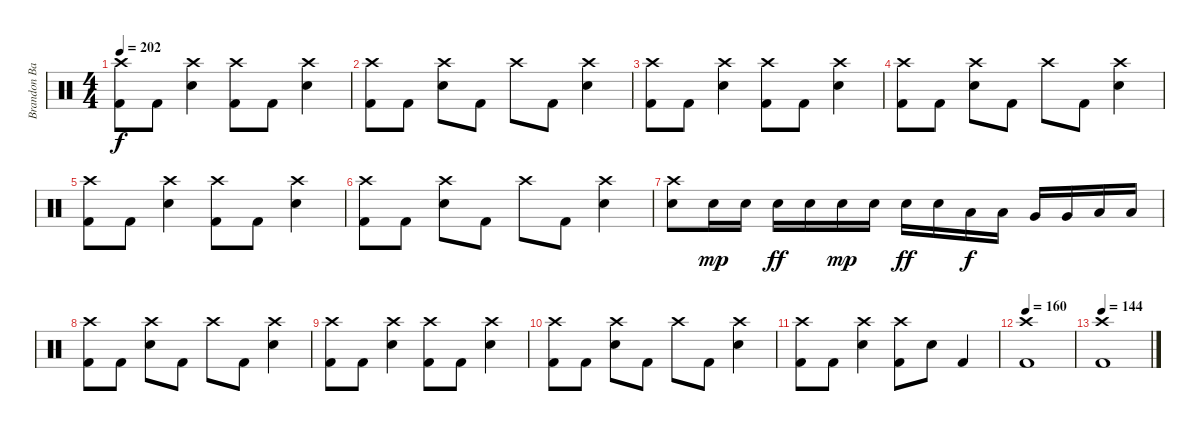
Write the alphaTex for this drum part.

\track ("Brandon Barnes - Drums" "Brandon Ba") {instrument percussion}
\staff {score}
\articulation defaults
\ts (4 4)
\tempo 202
\clef neutral
\ks c
("Kick (hit) 2" "Crash high (hit)").8{dy f} "Kick (hit) 2".8 ("Snare (hit) 2" "Crash high (hit)").4 ("Kick (hit) 2" "Crash high (hit)").8 "Kick (hit) 2".8 ("Snare (hit) 2" "Crash high (hit)").4 |
("Kick (hit) 2" "Crash high (hit)").8 "Kick (hit) 2".8 ("Snare (hit) 2" "Crash high (hit)").8 "Kick (hit) 2".8 "Crash high (hit)".8 "Kick (hit) 2".8 ("Snare (hit) 2" "Crash high (hit)").4 |
("Kick (hit) 2" "Crash high (hit)").8 "Kick (hit) 2".8 ("Snare (hit) 2" "Crash high (hit)").4 ("Kick (hit) 2" "Crash high (hit)").8 "Kick (hit) 2".8 ("Snare (hit) 2" "Crash high (hit)").4 |
("Kick (hit) 2" "Crash high (hit)").8 "Kick (hit) 2".8 ("Snare (hit) 2" "Crash high (hit)").8 "Kick (hit) 2".8 "Crash high (hit)".8 "Kick (hit) 2".8 ("Snare (hit) 2" "Crash high (hit)").4 |
("Kick (hit) 2" "Crash high (hit)").8 "Kick (hit) 2".8 ("Snare (hit) 2" "Crash high (hit)").4 ("Kick (hit) 2" "Crash high (hit)").8 "Kick (hit) 2".8 ("Snare (hit) 2" "Crash high (hit)").4 |
("Kick (hit) 2" "Crash high (hit)").8 "Kick (hit) 2".8 ("Snare (hit) 2" "Crash high (hit)").8 "Kick (hit) 2".8 "Crash high (hit)".8 "Kick (hit) 2".8 ("Snare (hit) 2" "Crash high (hit)").4 |
("Snare (hit) 2" "Crash high (hit)").8 "Snare (hit) 2".16{dy mp} "Snare (hit) 2".16 "Snare (hit) 2".16{dy ff} "Snare (hit) 2".16 "Snare (hit) 2".16{dy mp} "Snare (hit) 2".16 "Snare (hit) 2".16{dy ff} "Snare (hit) 2".16 "Low Tom (hit)".16{dy f} "Low Tom (hit)".16 "Very Low Tom (hit)".16 "Very Low Tom (hit)".16 "Low Floor Tom (hit)".16 "Low Floor Tom (hit)".16 |
("Kick (hit) 2" "Crash high (hit)").8 "Kick (hit) 2".8 ("Snare (hit) 2" "Crash high (hit)").8 "Kick (hit) 2".8 "Crash high (hit)".8 "Kick (hit) 2".8 ("Snare (hit) 2" "Crash high (hit)").4 |
("Kick (hit) 2" "Crash high (hit)").8 "Kick (hit) 2".8 ("Snare (hit) 2" "Crash high (hit)").4 ("Kick (hit) 2" "Crash high (hit)").8 "Kick (hit) 2".8 ("Snare (hit) 2" "Crash high (hit)").4 |
("Kick (hit) 2" "Crash high (hit)").8 "Kick (hit) 2".8 ("Snare (hit) 2" "Crash high (hit)").8 "Kick (hit) 2".8 "Crash high (hit)".8 "Kick (hit) 2".8 ("Snare (hit) 2" "Crash high (hit)").4 |
("Kick (hit) 2" "Crash high (hit)").8 "Kick (hit) 2".8 ("Snare (hit) 2" "Crash high (hit)").4 ("Kick (hit) 2" "Crash high (hit)").8 "Snare (hit) 2".8 "Kick (hit) 2".4 |
\tempo 160
("Kick (hit) 2" "Crash high (hit)").1 |
\tempo 144
("Kick (hit) 2" "Crash high (hit)").1
